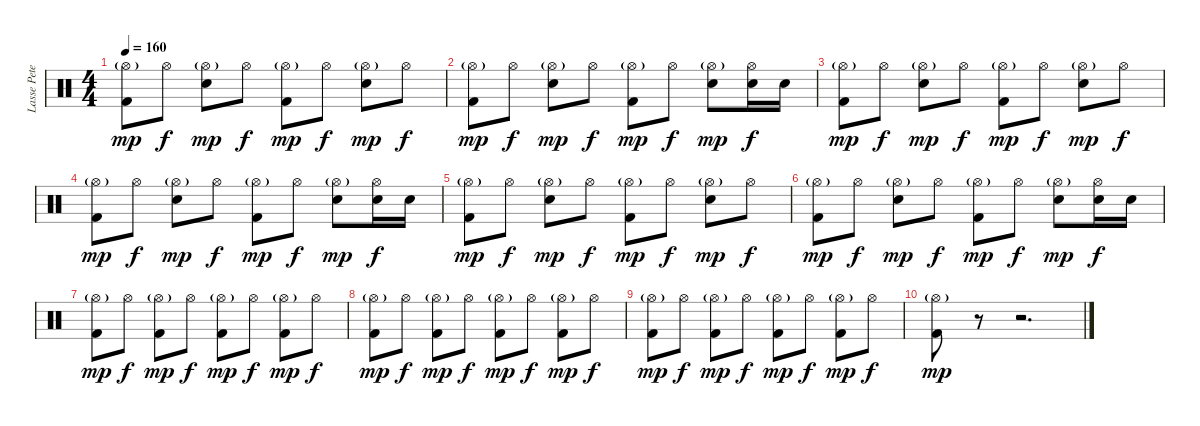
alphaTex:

\track ("Lasse Petersen - Drums" "Lasse Pete") {instrument percussion}
\staff {score}
\articulation defaults
\ts (4 4)
\tempo 160
\clef neutral
\ks c
("Kick (hit) 2" "Hi-Hat (open)"{g}).8{dy mp} "Hi-Hat (open)".8{dy f} ("Electric Snare (hit)" "Hi-Hat (open)"{g}).8{dy mp} "Hi-Hat (open)".8{dy f} ("Kick (hit) 2" "Hi-Hat (open)"{g}).8{dy mp} "Hi-Hat (open)".8{dy f} ("Electric Snare (hit)" "Hi-Hat (open)"{g}).8{dy mp} "Hi-Hat (open)".8{dy f} |
("Kick (hit) 2" "Hi-Hat (open)"{g}).8{dy mp} "Hi-Hat (open)".8{dy f} ("Electric Snare (hit)" "Hi-Hat (open)"{g}).8{dy mp} "Hi-Hat (open)".8{dy f} ("Kick (hit) 2" "Hi-Hat (open)"{g}).8{dy mp} "Hi-Hat (open)".8{dy f} ("Electric Snare (hit)" "Hi-Hat (open)"{g}).8{dy mp} ("Electric Snare (hit)" "Hi-Hat (open)").16{dy f} "Electric Snare (hit)".16 |
("Kick (hit) 2" "Hi-Hat (open)"{g}).8{dy mp} "Hi-Hat (open)".8{dy f} ("Electric Snare (hit)" "Hi-Hat (open)"{g}).8{dy mp} "Hi-Hat (open)".8{dy f} ("Kick (hit) 2" "Hi-Hat (open)"{g}).8{dy mp} "Hi-Hat (open)".8{dy f} ("Electric Snare (hit)" "Hi-Hat (open)"{g}).8{dy mp} "Hi-Hat (open)".8{dy f} |
("Kick (hit) 2" "Hi-Hat (open)"{g}).8{dy mp} "Hi-Hat (open)".8{dy f} ("Electric Snare (hit)" "Hi-Hat (open)"{g}).8{dy mp} "Hi-Hat (open)".8{dy f} ("Kick (hit) 2" "Hi-Hat (open)"{g}).8{dy mp} "Hi-Hat (open)".8{dy f} ("Electric Snare (hit)" "Hi-Hat (open)"{g}).8{dy mp} ("Electric Snare (hit)" "Hi-Hat (open)").16{dy f} "Electric Snare (hit)".16 |
("Kick (hit) 2" "Hi-Hat (open)"{g}).8{dy mp} "Hi-Hat (open)".8{dy f} ("Electric Snare (hit)" "Hi-Hat (open)"{g}).8{dy mp} "Hi-Hat (open)".8{dy f} ("Kick (hit) 2" "Hi-Hat (open)"{g}).8{dy mp} "Hi-Hat (open)".8{dy f} ("Electric Snare (hit)" "Hi-Hat (open)"{g}).8{dy mp} "Hi-Hat (open)".8{dy f} |
("Kick (hit) 2" "Hi-Hat (open)"{g}).8{dy mp} "Hi-Hat (open)".8{dy f} ("Electric Snare (hit)" "Hi-Hat (open)"{g}).8{dy mp} "Hi-Hat (open)".8{dy f} ("Kick (hit) 2" "Hi-Hat (open)"{g}).8{dy mp} "Hi-Hat (open)".8{dy f} ("Electric Snare (hit)" "Hi-Hat (open)"{g}).8{dy mp} ("Electric Snare (hit)" "Hi-Hat (open)").16{dy f} "Electric Snare (hit)".16 |
("Kick (hit) 2" "Hi-Hat (open)"{g}).8{dy mp} "Hi-Hat (open)".8{dy f} ("Kick (hit) 2" "Hi-Hat (open)"{g}).8{dy mp} "Hi-Hat (open)".8{dy f} ("Kick (hit) 2" "Hi-Hat (open)"{g}).8{dy mp} "Hi-Hat (open)".8{dy f} ("Kick (hit) 2" "Hi-Hat (open)"{g}).8{dy mp} "Hi-Hat (open)".8{dy f} |
("Kick (hit) 2" "Hi-Hat (open)"{g}).8{dy mp} "Hi-Hat (open)".8{dy f} ("Kick (hit) 2" "Hi-Hat (open)"{g}).8{dy mp} "Hi-Hat (open)".8{dy f} ("Kick (hit) 2" "Hi-Hat (open)"{g}).8{dy mp} "Hi-Hat (open)".8{dy f} ("Kick (hit) 2" "Hi-Hat (open)"{g}).8{dy mp} "Hi-Hat (open)".8{dy f} |
("Kick (hit) 2" "Hi-Hat (open)"{g}).8{dy mp} "Hi-Hat (open)".8{dy f} ("Kick (hit) 2" "Hi-Hat (open)"{g}).8{dy mp} "Hi-Hat (open)".8{dy f} ("Kick (hit) 2" "Hi-Hat (open)"{g}).8{dy mp} "Hi-Hat (open)".8{dy f} ("Kick (hit) 2" "Hi-Hat (open)"{g}).8{dy mp} "Hi-Hat (open)".8{dy f} |
("Kick (hit) 2" "Hi-Hat (open)"{g}).8{dy mp} r.8 r.2{d}
